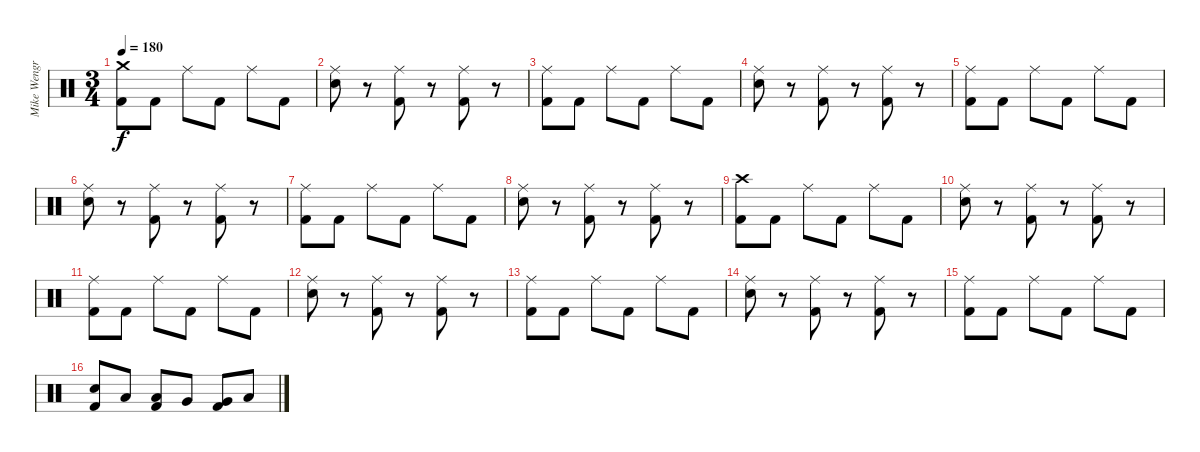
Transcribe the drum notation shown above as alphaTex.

\track ("Mike Wengren" "Mike Wengr") {instrument percussion}
\staff {score}
\articulation defaults
\ts (3 4)
\tempo 180
\clef neutral
\ks c
("Crash medium (hit)" "Kick (hit) 2").8{dy f} "Kick (hit) 2".8 "Ride (middle)".8 "Kick (hit) 2".8 "Ride (middle)".8 "Kick (hit) 2".8 |
("Ride (middle)" "Snare (hit) 2").8 r.8 ("Ride (middle)" "Kick (hit) 2").8 r.8 ("Ride (middle)" "Kick (hit) 2").8 r.8 |
("Ride (middle)" "Kick (hit) 2").8 "Kick (hit) 2".8 "Ride (middle)".8 "Kick (hit) 2".8 "Ride (middle)".8 "Kick (hit) 2".8 |
("Ride (middle)" "Snare (hit) 2").8 r.8 ("Ride (middle)" "Kick (hit) 2").8 r.8 ("Ride (middle)" "Kick (hit) 2").8 r.8 |
("Ride (middle)" "Kick (hit) 2").8 "Kick (hit) 2".8 "Ride (middle)".8 "Kick (hit) 2".8 "Ride (middle)".8 "Kick (hit) 2".8 |
("Ride (middle)" "Snare (hit) 2").8 r.8 ("Ride (middle)" "Kick (hit) 2").8 r.8 ("Ride (middle)" "Kick (hit) 2").8 r.8 |
("Ride (middle)" "Kick (hit) 2").8 "Kick (hit) 2".8 "Ride (middle)".8 "Kick (hit) 2".8 "Ride (middle)".8 "Kick (hit) 2".8 |
("Ride (middle)" "Snare (hit) 2").8 r.8 ("Ride (middle)" "Kick (hit) 2").8 r.8 ("Ride (middle)" "Kick (hit) 2").8 r.8 |
("Crash high (hit)" "Kick (hit) 2").8 "Kick (hit) 2".8 "Ride (middle)".8 "Kick (hit) 2".8 "Ride (middle)".8 "Kick (hit) 2".8 |
("Ride (middle)" "Snare (hit) 2").8 r.8 ("Ride (middle)" "Kick (hit) 2").8 r.8 ("Ride (middle)" "Kick (hit) 2").8 r.8 |
("Ride (middle)" "Kick (hit) 2").8 "Kick (hit) 2".8 "Ride (middle)".8 "Kick (hit) 2".8 "Ride (middle)".8 "Kick (hit) 2".8 |
("Ride (middle)" "Snare (hit) 2").8 r.8 ("Ride (middle)" "Kick (hit) 2").8 r.8 ("Ride (middle)" "Kick (hit) 2").8 r.8 |
("Ride (middle)" "Kick (hit) 2").8 "Kick (hit) 2".8 "Ride (middle)".8 "Kick (hit) 2".8 "Ride (middle)".8 "Kick (hit) 2".8 |
("Ride (middle)" "Snare (hit) 2").8 r.8 ("Ride (middle)" "Kick (hit) 2").8 r.8 ("Ride (middle)" "Kick (hit) 2").8 r.8 |
("Ride (middle)" "Kick (hit) 2").8 "Kick (hit) 2".8 "Ride (middle)".8 "Kick (hit) 2".8 "Ride (middle)".8 "Kick (hit) 2".8 |
("Snare (hit) 2" "Kick (hit) 2").8 "Low Tom (hit)".8 ("Low Tom (hit)" "Kick (hit) 2").8 "Very Low Tom (hit)".8 ("Very Low Tom (hit)" "Kick (hit) 2").8 "Low Floor Tom (hit)".8
